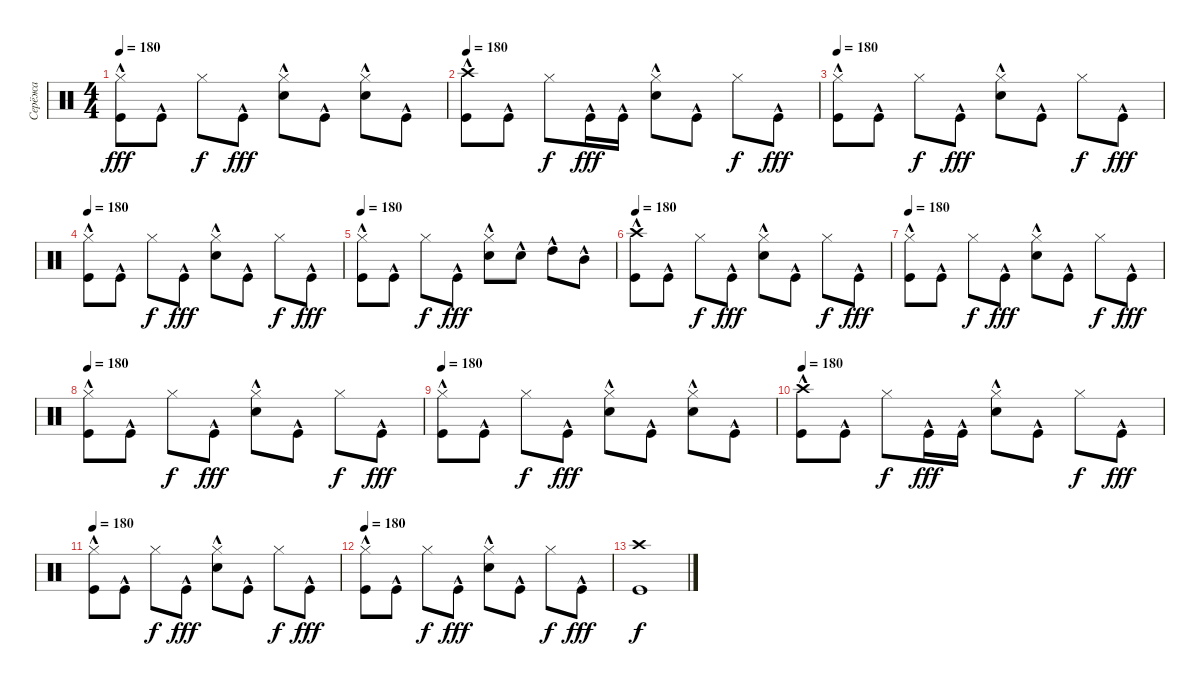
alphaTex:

\track ("Серёжа" "Серёжа") {instrument percussion}
\staff {score}
\articulation defaults
\ts (4 4)
\tempo 180
\clef neutral
\ks c
("Hi-Hat (closed)" "Kick (hit)"{hac}).8{dy fff} "Kick (hit)"{hac}.8 "Hi-Hat (closed)".8{dy f} "Kick (hit)"{hac}.8{dy fff} ("Hi-Hat (closed)" "Snare (hit) 2"{hac}).8 "Kick (hit)"{hac}.8 ("Hi-Hat (closed)" "Snare (hit) 2"{hac}).8 "Kick (hit)"{hac}.8 |
\tempo 180
("Crash high (hit)"{hac} "Kick (hit)"{hac}).8 "Kick (hit)"{hac}.8 "Hi-Hat (closed)".8{dy f} "Kick (hit)"{hac}.16{dy fff} "Kick (hit)"{hac}.16 ("Hi-Hat (closed)" "Snare (hit) 2"{hac}).8 "Kick (hit)"{hac}.8 "Hi-Hat (closed)".8{dy f} "Kick (hit)"{hac}.8{dy fff} |
\tempo 180
("Hi-Hat (closed)" "Kick (hit)"{hac}).8 "Kick (hit)"{hac}.8 "Hi-Hat (closed)".8{dy f} "Kick (hit)"{hac}.8{dy fff} ("Hi-Hat (closed)" "Snare (hit) 2"{hac}).8 "Kick (hit)"{hac}.8 "Hi-Hat (closed)".8{dy f} "Kick (hit)"{hac}.8{dy fff} |
\tempo 180
("Hi-Hat (closed)" "Kick (hit)"{hac}).8 "Kick (hit)"{hac}.8 "Hi-Hat (closed)".8{dy f} "Kick (hit)"{hac}.8{dy fff} ("Hi-Hat (closed)" "Snare (hit) 2"{hac}).8 "Kick (hit)"{hac}.8 "Hi-Hat (closed)".8{dy f} "Kick (hit)"{hac}.8{dy fff} |
\tempo 180
("Hi-Hat (closed)" "Kick (hit)"{hac}).8 "Kick (hit)"{hac}.8 "Hi-Hat (closed)".8{dy f} "Kick (hit)"{hac}.8{dy fff} ("Hi-Hat (closed)" "Snare (hit) 2"{hac}).8 "Snare (hit) 2"{hac}.8 "High Tom (hit)"{hac}.8 "Mid Tom (hit)"{hac}.8 |
\tempo 180
("Crash high (hit)"{hac} "Kick (hit)"{hac}).8 "Kick (hit)"{hac}.8 "Hi-Hat (closed)".8{dy f} "Kick (hit)"{hac}.8{dy fff} ("Hi-Hat (closed)" "Snare (hit) 2"{hac}).8 "Kick (hit)"{hac}.8 "Hi-Hat (closed)".8{dy f} "Kick (hit)"{hac}.8{dy fff} |
\tempo 180
("Hi-Hat (closed)" "Kick (hit)"{hac}).8 "Kick (hit)"{hac}.8 "Hi-Hat (closed)".8{dy f} "Kick (hit)"{hac}.8{dy fff} ("Hi-Hat (closed)" "Snare (hit) 2"{hac}).8 "Kick (hit)"{hac}.8 "Hi-Hat (closed)".8{dy f} "Kick (hit)"{hac}.8{dy fff} |
\tempo 180
("Hi-Hat (closed)" "Kick (hit)"{hac}).8 "Kick (hit)"{hac}.8 "Hi-Hat (closed)".8{dy f} "Kick (hit)"{hac}.8{dy fff} ("Hi-Hat (closed)" "Snare (hit) 2"{hac}).8 "Kick (hit)"{hac}.8 "Hi-Hat (closed)".8{dy f} "Kick (hit)"{hac}.8{dy fff} |
\tempo 180
("Hi-Hat (closed)" "Kick (hit)"{hac}).8 "Kick (hit)"{hac}.8 "Hi-Hat (closed)".8{dy f} "Kick (hit)"{hac}.8{dy fff} ("Hi-Hat (closed)" "Snare (hit) 2"{hac}).8 "Kick (hit)"{hac}.8 ("Hi-Hat (closed)" "Snare (hit) 2"{hac}).8 "Kick (hit)"{hac}.8 |
\tempo 180
("Crash high (hit)"{hac} "Kick (hit)"{hac}).8 "Kick (hit)"{hac}.8 "Hi-Hat (closed)".8{dy f} "Kick (hit)"{hac}.16{dy fff} "Kick (hit)"{hac}.16 ("Hi-Hat (closed)" "Snare (hit) 2"{hac}).8 "Kick (hit)"{hac}.8 "Hi-Hat (closed)".8{dy f} "Kick (hit)"{hac}.8{dy fff} |
\tempo 180
("Hi-Hat (closed)" "Kick (hit)"{hac}).8 "Kick (hit)"{hac}.8 "Hi-Hat (closed)".8{dy f} "Kick (hit)"{hac}.8{dy fff} ("Hi-Hat (closed)" "Snare (hit) 2"{hac}).8 "Kick (hit)"{hac}.8 "Hi-Hat (closed)".8{dy f} "Kick (hit)"{hac}.8{dy fff} |
\tempo 180
("Hi-Hat (closed)" "Kick (hit)"{hac}).8 "Kick (hit)"{hac}.8 "Hi-Hat (closed)".8{dy f} "Kick (hit)"{hac}.8{dy fff} ("Hi-Hat (closed)" "Snare (hit) 2"{hac}).8 "Kick (hit)"{hac}.8 "Hi-Hat (closed)".8{dy f} "Kick (hit)"{hac}.8{dy fff} |
("Crash high (hit)" "Kick (hit)").1{dy f}
